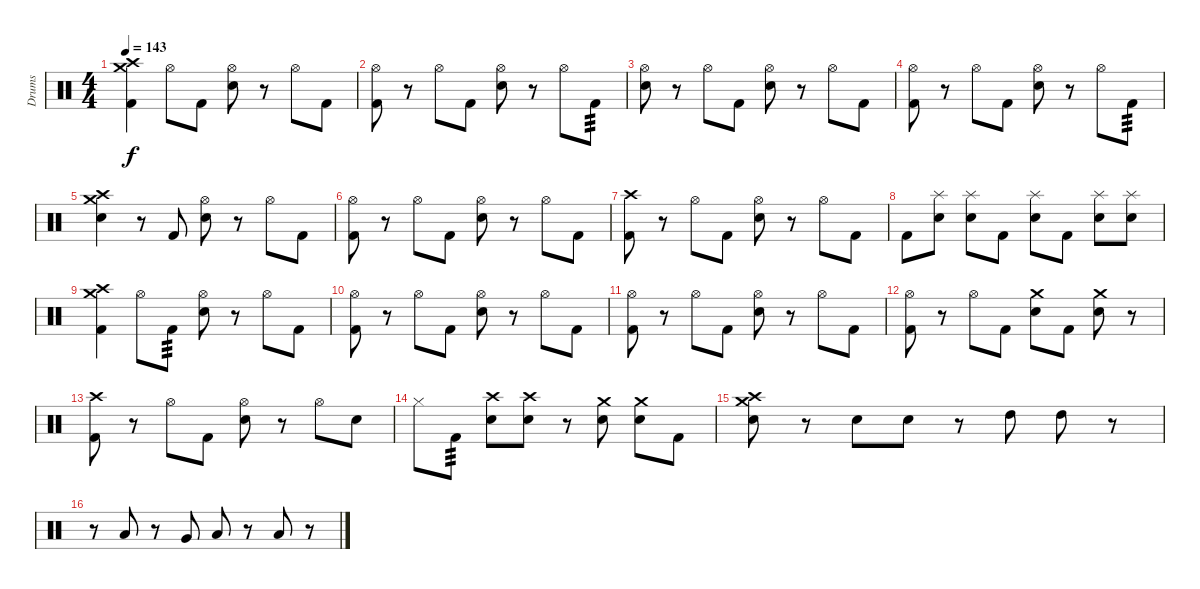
\track ("Drums" "Drums") {instrument percussion}
\staff {score}
\articulation defaults
\ts (4 4)
\tempo 143
\clef neutral
\ks c
("Crash medium (hit)" "Crash high (hit)" "Kick (hit) 2").4{dy f} "Hi-Hat (open)".8 "Kick (hit) 2".8 ("Hi-Hat (open)" "Electric Snare (hit)").8 r.8 "Hi-Hat (open)".8 "Kick (hit) 2".8 |
("Hi-Hat (open)" "Kick (hit) 2").8 r.8 "Hi-Hat (open)".8 "Kick (hit) 2".8 ("Hi-Hat (open)" "Electric Snare (hit)").8 r.8 "Hi-Hat (open)".8 "Kick (hit) 2".8{tp 3} |
("Hi-Hat (open)" "Electric Snare (hit)").8 r.8 "Hi-Hat (open)".8 "Kick (hit) 2".8 ("Hi-Hat (open)" "Electric Snare (hit)").8 r.8 "Hi-Hat (open)".8 "Kick (hit) 2".8 |
("Hi-Hat (open)" "Kick (hit) 2").8 r.8 "Hi-Hat (open)".8 "Kick (hit) 2".8 ("Hi-Hat (open)" "Electric Snare (hit)").8 r.8 "Hi-Hat (open)".8 "Kick (hit) 2".8{tp 3} |
("Crash medium (hit)" "Crash high (hit)" "Electric Snare (hit)").4 r.8 "Kick (hit) 2".8 ("Hi-Hat (open)" "Electric Snare (hit)").8 r.8 "Hi-Hat (open)".8 "Kick (hit) 2".8 |
("Hi-Hat (open)" "Kick (hit) 2").8 r.8 "Hi-Hat (open)".8 "Kick (hit) 2".8 ("Hi-Hat (open)" "Electric Snare (hit)").8 r.8 "Hi-Hat (open)".8 "Kick (hit) 2".8 |
("Crash high (hit)" "Kick (hit) 2").8 r.8 "Hi-Hat (open)".8 "Kick (hit) 2".8 ("Hi-Hat (open)" "Electric Snare (hit)").8 r.8 "Hi-Hat (open)".8 "Kick (hit) 2".8 |
"Kick (hit) 2".8 ("Splash (hit)" "Electric Snare (hit)").8 ("Splash (hit)" "Electric Snare (hit)").8 "Kick (hit) 2".8 ("Splash (hit)" "Electric Snare (hit)").8 "Kick (hit) 2".8 ("Splash (hit)" "Electric Snare (hit)").8 ("Splash (hit)" "Electric Snare (hit)").8 |
("Crash medium (hit)" "Crash high (hit)" "Kick (hit) 2").4 "Hi-Hat (open)".8 "Kick (hit) 2".8{tp 3} ("Hi-Hat (open)" "Electric Snare (hit)").8 r.8 "Hi-Hat (open)".8 "Kick (hit) 2".8 |
("Hi-Hat (open)" "Kick (hit) 2").8 r.8 "Hi-Hat (open)".8 "Kick (hit) 2".8 ("Hi-Hat (open)" "Electric Snare (hit)").8 r.8 "Hi-Hat (open)".8 "Kick (hit) 2".8 |
("Hi-Hat (open)" "Kick (hit) 2").8 r.8 "Hi-Hat (open)".8 "Kick (hit) 2".8 ("Hi-Hat (open)" "Electric Snare (hit)").8 r.8 "Hi-Hat (open)".8 "Kick (hit) 2".8 |
("Hi-Hat (open)" "Kick (hit) 2").8 r.8 "Hi-Hat (open)".8 "Kick (hit) 2".8 ("Crash medium (hit)" "Electric Snare (hit)").8 "Kick (hit) 2".8 ("Crash medium (hit)" "Electric Snare (hit)").8 r.8 |
("Crash high (hit)" "Kick (hit) 2").8 r.8 "Hi-Hat (open)".8 "Kick (hit) 2".8 ("Hi-Hat (open)" "Electric Snare (hit)").8 r.8 "Hi-Hat (open)".8 "Electric Snare (hit)".8 |
"Hi-Hat (closed)".8 "Kick (hit) 2".8{tp 3} ("Crash high (hit)" "Electric Snare (hit)").8 ("Crash high (hit)" "Electric Snare (hit)").8 r.8 ("Crash medium (hit)" "Electric Snare (hit)").8 ("Crash medium (hit)" "Electric Snare (hit)").8 "Kick (hit) 2".8 |
("Crash medium (hit)" "Crash high (hit)" "Electric Snare (hit)").8 r.8 "Electric Snare (hit)".8 "Electric Snare (hit)".8 r.8 "High Tom (hit)".8 "High Tom (hit)".8 r.8 |
r.8 "Low Tom (hit)".8 r.8 "Very Low Tom (hit)".8 "Low Floor Tom (hit)".8 r.8 "Low Floor Tom (hit)".8 r.8
